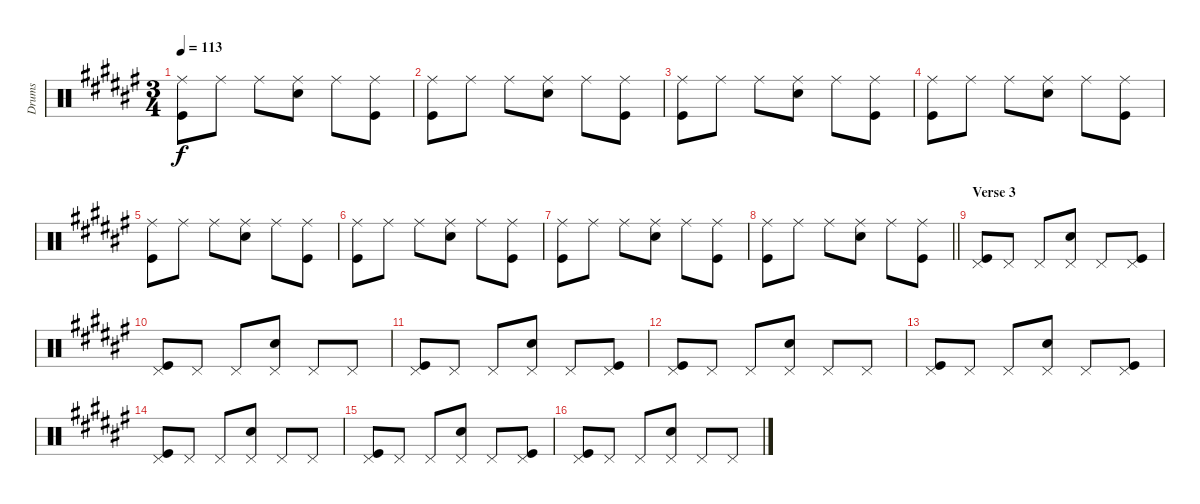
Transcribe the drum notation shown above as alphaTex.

\track ("Drums" "Drums") {instrument percussion}
\staff {score}
\articulation defaults
\ts (3 4)
\tempo 113
\clef neutral
\ks f#
("Ride (middle)" "Kick (hit)").8{dy f} "Ride (middle)".8 "Ride (middle)".8 ("Ride (middle)" "Snare (hit) 2").8 "Ride (middle)".8 ("Ride (middle)" "Kick (hit)").8 |
("Ride (middle)" "Kick (hit)").8 "Ride (middle)".8 "Ride (middle)".8 ("Ride (middle)" "Snare (hit) 2").8 "Ride (middle)".8 ("Ride (middle)" "Kick (hit)").8 |
("Ride (middle)" "Kick (hit)").8 "Ride (middle)".8 "Ride (middle)".8 ("Ride (middle)" "Snare (hit) 2").8 "Ride (middle)".8 ("Ride (middle)" "Kick (hit)").8 |
("Ride (middle)" "Kick (hit)").8 "Ride (middle)".8 "Ride (middle)".8 ("Ride (middle)" "Snare (hit) 2").8 "Ride (middle)".8 ("Ride (middle)" "Kick (hit)").8 |
("Ride (middle)" "Kick (hit)").8 "Ride (middle)".8 "Ride (middle)".8 ("Ride (middle)" "Snare (hit) 2").8 "Ride (middle)".8 ("Ride (middle)" "Kick (hit)").8 |
("Ride (middle)" "Kick (hit)").8 "Ride (middle)".8 "Ride (middle)".8 ("Ride (middle)" "Snare (hit) 2").8 "Ride (middle)".8 ("Ride (middle)" "Kick (hit)").8 |
("Ride (middle)" "Kick (hit)").8 "Ride (middle)".8 "Ride (middle)".8 ("Ride (middle)" "Snare (hit) 2").8 "Ride (middle)".8 ("Ride (middle)" "Kick (hit)").8 |
\barLineRight lightlight
("Ride (middle)" "Kick (hit)").8 "Ride (middle)".8 "Ride (middle)".8 ("Ride (middle)" "Snare (hit) 2").8 "Ride (middle)".8 ("Ride (middle)" "Kick (hit)").8 |
\section ("" "Verse 3")
("Pedal Hi-Hat (hit)" "Kick (hit)").8 "Pedal Hi-Hat (hit)".8 "Pedal Hi-Hat (hit)".8 ("Pedal Hi-Hat (hit)" "Snare (hit) 2").8 "Pedal Hi-Hat (hit)".8 ("Pedal Hi-Hat (hit)" "Kick (hit)").8 |
("Pedal Hi-Hat (hit)" "Kick (hit)").8 "Pedal Hi-Hat (hit)".8 "Pedal Hi-Hat (hit)".8 ("Pedal Hi-Hat (hit)" "Snare (hit) 2").8 "Pedal Hi-Hat (hit)".8 "Pedal Hi-Hat (hit)".8 |
("Pedal Hi-Hat (hit)" "Kick (hit)").8 "Pedal Hi-Hat (hit)".8 "Pedal Hi-Hat (hit)".8 ("Pedal Hi-Hat (hit)" "Snare (hit) 2").8 "Pedal Hi-Hat (hit)".8 ("Pedal Hi-Hat (hit)" "Kick (hit)").8 |
("Pedal Hi-Hat (hit)" "Kick (hit)").8 "Pedal Hi-Hat (hit)".8 "Pedal Hi-Hat (hit)".8 ("Pedal Hi-Hat (hit)" "Snare (hit) 2").8 "Pedal Hi-Hat (hit)".8 "Pedal Hi-Hat (hit)".8 |
("Pedal Hi-Hat (hit)" "Kick (hit)").8 "Pedal Hi-Hat (hit)".8 "Pedal Hi-Hat (hit)".8 ("Pedal Hi-Hat (hit)" "Snare (hit) 2").8 "Pedal Hi-Hat (hit)".8 ("Pedal Hi-Hat (hit)" "Kick (hit)").8 |
("Pedal Hi-Hat (hit)" "Kick (hit)").8 "Pedal Hi-Hat (hit)".8 "Pedal Hi-Hat (hit)".8 ("Pedal Hi-Hat (hit)" "Snare (hit) 2").8 "Pedal Hi-Hat (hit)".8 "Pedal Hi-Hat (hit)".8 |
("Pedal Hi-Hat (hit)" "Kick (hit)").8 "Pedal Hi-Hat (hit)".8 "Pedal Hi-Hat (hit)".8 ("Pedal Hi-Hat (hit)" "Snare (hit) 2").8 "Pedal Hi-Hat (hit)".8 ("Pedal Hi-Hat (hit)" "Kick (hit)").8 |
("Pedal Hi-Hat (hit)" "Kick (hit)").8 "Pedal Hi-Hat (hit)".8 "Pedal Hi-Hat (hit)".8 ("Pedal Hi-Hat (hit)" "Snare (hit) 2").8 "Pedal Hi-Hat (hit)".8 "Pedal Hi-Hat (hit)".8
